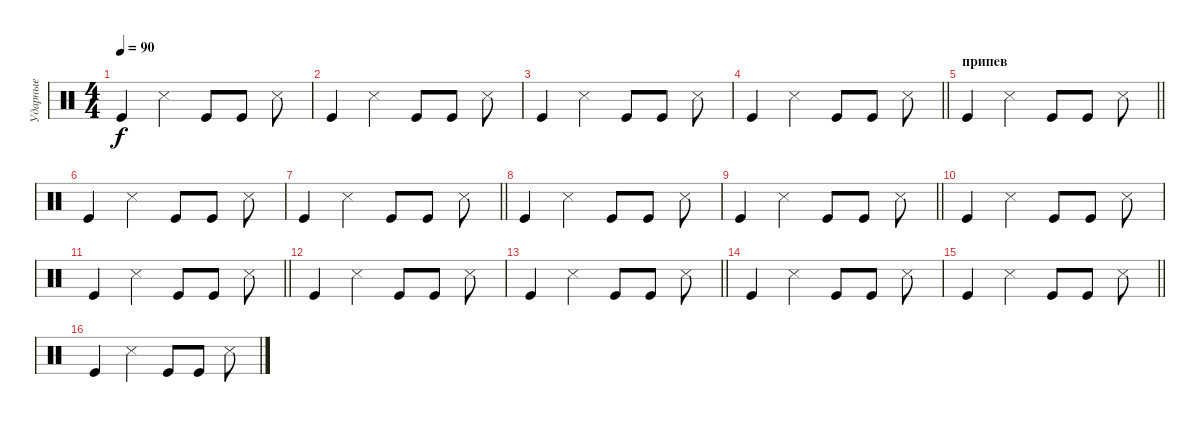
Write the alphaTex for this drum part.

\track ("Ударные" "Ударные") {instrument percussion}
\staff {score}
\articulation defaults
\ts (4 4)
\tempo 90
\clef neutral
\ks c "Kick (hit)".4{dy f} "Snare (side stick) 3".4 "Kick (hit)".8 "Kick (hit)".8 "Snare (side stick) 3".8
|
"Kick (hit)".4 "Snare (side stick) 3".4 "Kick (hit)".8 "Kick (hit)".8 "Snare (side stick) 3".8 |
"Kick (hit)".4 "Snare (side stick) 3".4 "Kick (hit)".8 "Kick (hit)".8 "Snare (side stick) 3".8 |
\barLineRight lightlight "Kick (hit)".4 "Snare (side stick) 3".4 "Kick (hit)".8 "Kick (hit)".8 "Snare (side stick) 3".8
|
\section ("" "припев")
\barLineRight lightlight "Kick (hit)".4 "Snare (side stick) 3".4 "Kick (hit)".8 "Kick (hit)".8 "Snare (side stick) 3".8
|
"Kick (hit)".4 "Snare (side stick) 3".4 "Kick (hit)".8 "Kick (hit)".8 "Snare (side stick) 3".8 |
\barLineRight lightlight "Kick (hit)".4 "Snare (side stick) 3".4 "Kick (hit)".8 "Kick (hit)".8 "Snare (side stick) 3".8
|
"Kick (hit)".4 "Snare (side stick) 3".4 "Kick (hit)".8 "Kick (hit)".8 "Snare (side stick) 3".8 |
\barLineRight lightlight "Kick (hit)".4 "Snare (side stick) 3".4 "Kick (hit)".8 "Kick (hit)".8 "Snare (side stick) 3".8
|
"Kick (hit)".4 "Snare (side stick) 3".4 "Kick (hit)".8 "Kick (hit)".8 "Snare (side stick) 3".8 |
\barLineRight lightlight "Kick (hit)".4 "Snare (side stick) 3".4 "Kick (hit)".8 "Kick (hit)".8 "Snare (side stick) 3".8
|
"Kick (hit)".4 "Snare (side stick) 3".4 "Kick (hit)".8 "Kick (hit)".8 "Snare (side stick) 3".8 |
\barLineRight lightlight "Kick (hit)".4 "Snare (side stick) 3".4 "Kick (hit)".8 "Kick (hit)".8 "Snare (side stick) 3".8
|
"Kick (hit)".4 "Snare (side stick) 3".4 "Kick (hit)".8 "Kick (hit)".8 "Snare (side stick) 3".8 |
\barLineRight lightlight "Kick (hit)".4 "Snare (side stick) 3".4 "Kick (hit)".8 "Kick (hit)".8 "Snare (side stick) 3".8
|
"Kick (hit)".4 "Snare (side stick) 3".4 "Kick (hit)".8 "Kick (hit)".8 "Snare (side stick) 3".8
